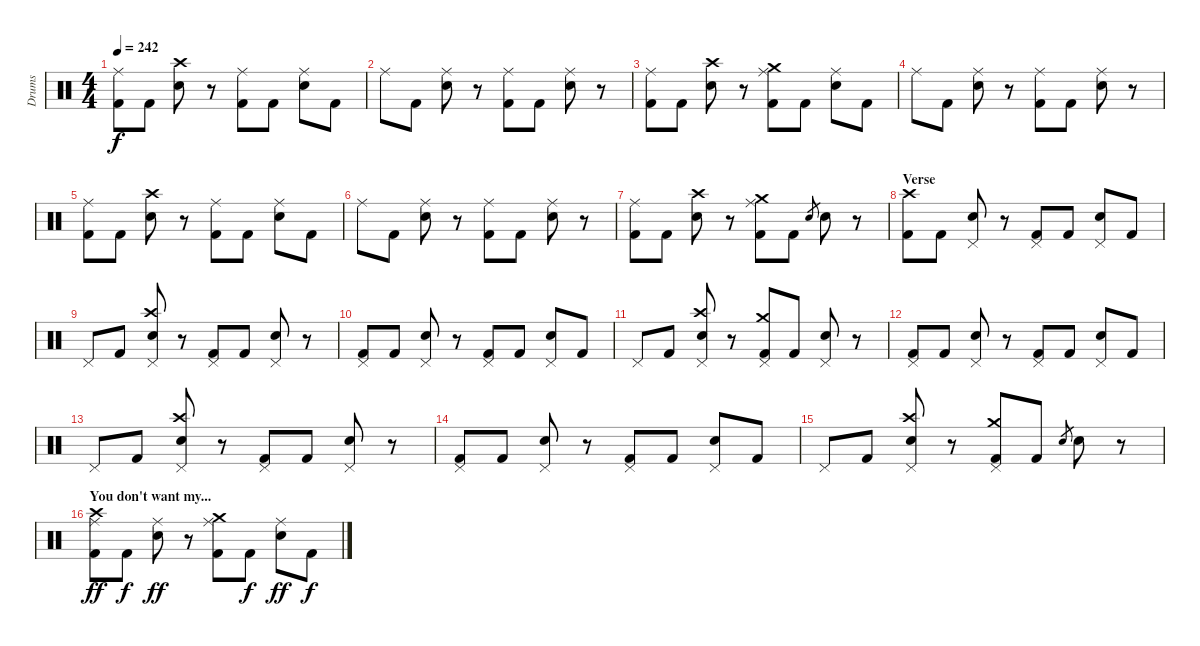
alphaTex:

\track ("Drums" "Drums") {instrument percussion}
\staff {score}
\articulation defaults
\ts (4 4)
\tempo 242
\clef neutral
\ks c
("Ride (middle)" "Kick (hit) 2").8{dy f} "Kick (hit) 2".8 ("Electric Snare (hit)" "Crash high (hit)").8 r.8 ("Ride (middle)" "Kick (hit) 2").8 "Kick (hit) 2".8 ("Ride (middle)" "Electric Snare (hit)").8 "Kick (hit) 2".8 |
"Ride (middle)".8 "Kick (hit) 2".8 ("Ride (middle)" "Electric Snare (hit)").8 r.8 ("Ride (middle)" "Kick (hit) 2").8 "Kick (hit) 2".8 ("Ride (middle)" "Electric Snare (hit)").8 r.8 |
("Ride (middle)" "Kick (hit) 2").8 "Kick (hit) 2".8 ("Electric Snare (hit)" "Crash high (hit)").8 r.8 ("Ride (middle)" "Crash medium (hit)" "Kick (hit) 2").8 "Kick (hit) 2".8 ("Ride (middle)" "Electric Snare (hit)").8 "Kick (hit) 2".8 |
"Ride (middle)".8 "Kick (hit) 2".8 ("Ride (middle)" "Electric Snare (hit)").8 r.8 ("Ride (middle)" "Kick (hit) 2").8 "Kick (hit) 2".8 ("Ride (middle)" "Electric Snare (hit)").8 r.8 |
("Ride (middle)" "Kick (hit) 2").8 "Kick (hit) 2".8 ("Electric Snare (hit)" "Crash high (hit)").8 r.8 ("Ride (middle)" "Kick (hit) 2").8 "Kick (hit) 2".8 ("Ride (middle)" "Electric Snare (hit)").8 "Kick (hit) 2".8 |
"Ride (middle)".8 "Kick (hit) 2".8 ("Ride (middle)" "Electric Snare (hit)").8 r.8 ("Ride (middle)" "Kick (hit) 2").8 "Kick (hit) 2".8 ("Ride (middle)" "Electric Snare (hit)").8 r.8 |
("Ride (middle)" "Kick (hit) 2").8 "Kick (hit) 2".8 ("Electric Snare (hit)" "Crash high (hit)").8 r.8 ("Ride (middle)" "Crash medium (hit)" "Kick (hit) 2").8 "Kick (hit) 2".8 "Electric Snare (hit)".8{gr} "Electric Snare (hit)".8 r.8 |
\section ("" "Verse")
("Crash high (hit)" "Kick (hit) 2").8 "Kick (hit) 2".8 ("Pedal Hi-Hat (hit)" "Electric Snare (hit)").8 r.8 ("Pedal Hi-Hat (hit)" "Kick (hit) 2").8 "Kick (hit) 2".8 ("Pedal Hi-Hat (hit)" "Electric Snare (hit)").8 "Kick (hit) 2".8 |
"Pedal Hi-Hat (hit)".8 "Kick (hit) 2".8 ("Pedal Hi-Hat (hit)" "Electric Snare (hit)" "Crash high (hit)").8 r.8 ("Pedal Hi-Hat (hit)" "Kick (hit) 2").8 "Kick (hit) 2".8 ("Pedal Hi-Hat (hit)" "Electric Snare (hit)").8 r.8 |
("Pedal Hi-Hat (hit)" "Kick (hit) 2").8 "Kick (hit) 2".8 ("Pedal Hi-Hat (hit)" "Electric Snare (hit)").8 r.8 ("Pedal Hi-Hat (hit)" "Kick (hit) 2").8 "Kick (hit) 2".8 ("Pedal Hi-Hat (hit)" "Electric Snare (hit)").8 "Kick (hit) 2".8 |
"Pedal Hi-Hat (hit)".8 "Kick (hit) 2".8 ("Pedal Hi-Hat (hit)" "Electric Snare (hit)" "Crash high (hit)").8 r.8 ("Pedal Hi-Hat (hit)" "Crash medium (hit)" "Kick (hit) 2").8 "Kick (hit) 2".8 ("Pedal Hi-Hat (hit)" "Electric Snare (hit)").8 r.8 |
("Pedal Hi-Hat (hit)" "Kick (hit) 2").8 "Kick (hit) 2".8 ("Pedal Hi-Hat (hit)" "Electric Snare (hit)").8 r.8 ("Pedal Hi-Hat (hit)" "Kick (hit) 2").8 "Kick (hit) 2".8 ("Pedal Hi-Hat (hit)" "Electric Snare (hit)").8 "Kick (hit) 2".8 |
"Pedal Hi-Hat (hit)".8 "Kick (hit) 2".8 ("Pedal Hi-Hat (hit)" "Electric Snare (hit)" "Crash high (hit)").8 r.8 ("Pedal Hi-Hat (hit)" "Kick (hit) 2").8 "Kick (hit) 2".8 ("Pedal Hi-Hat (hit)" "Electric Snare (hit)").8 r.8 |
("Pedal Hi-Hat (hit)" "Kick (hit) 2").8 "Kick (hit) 2".8 ("Pedal Hi-Hat (hit)" "Electric Snare (hit)").8 r.8 ("Pedal Hi-Hat (hit)" "Kick (hit) 2").8 "Kick (hit) 2".8 ("Pedal Hi-Hat (hit)" "Electric Snare (hit)").8 "Kick (hit) 2".8 |
"Pedal Hi-Hat (hit)".8 "Kick (hit) 2".8 ("Pedal Hi-Hat (hit)" "Electric Snare (hit)" "Crash high (hit)").8 r.8 ("Pedal Hi-Hat (hit)" "Crash medium (hit)" "Kick (hit) 2").8 "Kick (hit) 2".8 "Electric Snare (hit)".8{gr} "Electric Snare (hit)".8 r.8 |
\section ("" "You don't want my...")
("Ride (middle)" "Crash high (hit)" "Kick (hit) 2").8{dy ff} "Kick (hit) 2".8{dy f} ("Ride (middle)" "Electric Snare (hit)").8{dy ff} r.8 ("Ride (middle)" "Crash medium (hit)" "Kick (hit) 2").8 "Kick (hit) 2".8{dy f} ("Ride (middle)" "Electric Snare (hit)").8{dy ff} "Kick (hit) 2".8{dy f}
